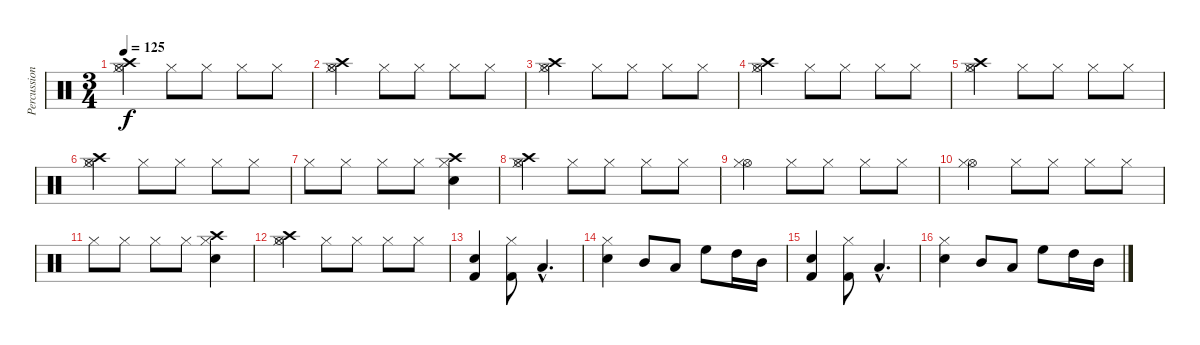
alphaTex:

\track ("Percussion" "Percussion") {instrument percussion}
\staff {score}
\articulation defaults
\ts (3 4)
\tempo 125
\clef neutral
\ks c
("Hi-Hat (open)" "Crash high (hit)" "Hi-Hat (closed)").4{dy f} "Hi-Hat (closed)".8 "Hi-Hat (closed)".8 "Hi-Hat (closed)".8 "Hi-Hat (closed)".8 |
("Hi-Hat (open)" "Crash high (hit)" "Hi-Hat (closed)").4 "Hi-Hat (closed)".8 "Hi-Hat (closed)".8 "Hi-Hat (closed)".8 "Hi-Hat (closed)".8 |
("Hi-Hat (open)" "Crash high (hit)" "Hi-Hat (closed)").4 "Hi-Hat (closed)".8 "Hi-Hat (closed)".8 "Hi-Hat (closed)".8 "Hi-Hat (closed)".8 |
("Hi-Hat (open)" "Crash high (hit)" "Hi-Hat (closed)").4 "Hi-Hat (closed)".8 "Hi-Hat (closed)".8 "Hi-Hat (closed)".8 "Hi-Hat (closed)".8 |
("Hi-Hat (open)" "Crash high (hit)" "Hi-Hat (closed)").4 "Hi-Hat (closed)".8 "Hi-Hat (closed)".8 "Hi-Hat (closed)".8 "Hi-Hat (closed)".8 |
("Hi-Hat (open)" "Crash high (hit)" "Hi-Hat (closed)").4 "Hi-Hat (closed)".8 "Hi-Hat (closed)".8 "Hi-Hat (closed)".8 "Hi-Hat (closed)".8 |
"Hi-Hat (closed)".8 "Hi-Hat (closed)".8 "Hi-Hat (closed)".8 "Hi-Hat (closed)".8 ("Snare (hit) 2" "Crash high (hit)" "Hi-Hat (closed)").4 |
("Hi-Hat (open)" "Crash high (hit)" "Hi-Hat (closed)").4 "Hi-Hat (closed)".8 "Hi-Hat (closed)".8 "Hi-Hat (closed)".8 "Hi-Hat (closed)".8 |
("Hi-Hat (open)" "Hi-Hat (closed)").4 "Hi-Hat (closed)".8 "Hi-Hat (closed)".8 "Hi-Hat (closed)".8 "Hi-Hat (closed)".8 |
("Hi-Hat (open)" "Hi-Hat (closed)").4 "Hi-Hat (closed)".8 "Hi-Hat (closed)".8 "Hi-Hat (closed)".8 "Hi-Hat (closed)".8 |
"Hi-Hat (closed)".8 "Hi-Hat (closed)".8 "Hi-Hat (closed)".8 "Hi-Hat (closed)".8 ("Snare (hit) 2" "Crash high (hit)" "Hi-Hat (closed)").4 |
("Hi-Hat (open)" "Crash high (hit)" "Hi-Hat (closed)").4 "Hi-Hat (closed)".8 "Hi-Hat (closed)".8 "Hi-Hat (closed)".8 "Hi-Hat (closed)".8 |
("Kick (hit) 2" "Snare (hit) 2").4 ("Kick (hit) 2" "Hi-Hat (closed)").8 "Low Tom (hit)"{hac}.4{d} |
("Snare (hit) 2" "Hi-Hat (closed)").4 "Mid Tom (hit)".8 "Low Tom (hit)".8 "High Floor Tom (hit)".8 "High Tom (hit)".16 "Mid Tom (hit)".16 |
("Kick (hit) 2" "Snare (hit) 2").4 ("Kick (hit) 2" "Hi-Hat (closed)").8 "Low Tom (hit)"{hac}.4{d} |
("Snare (hit) 2" "Hi-Hat (closed)").4 "Mid Tom (hit)".8 "Low Tom (hit)".8 "High Floor Tom (hit)".8 "High Tom (hit)".16 "Mid Tom (hit)".16
